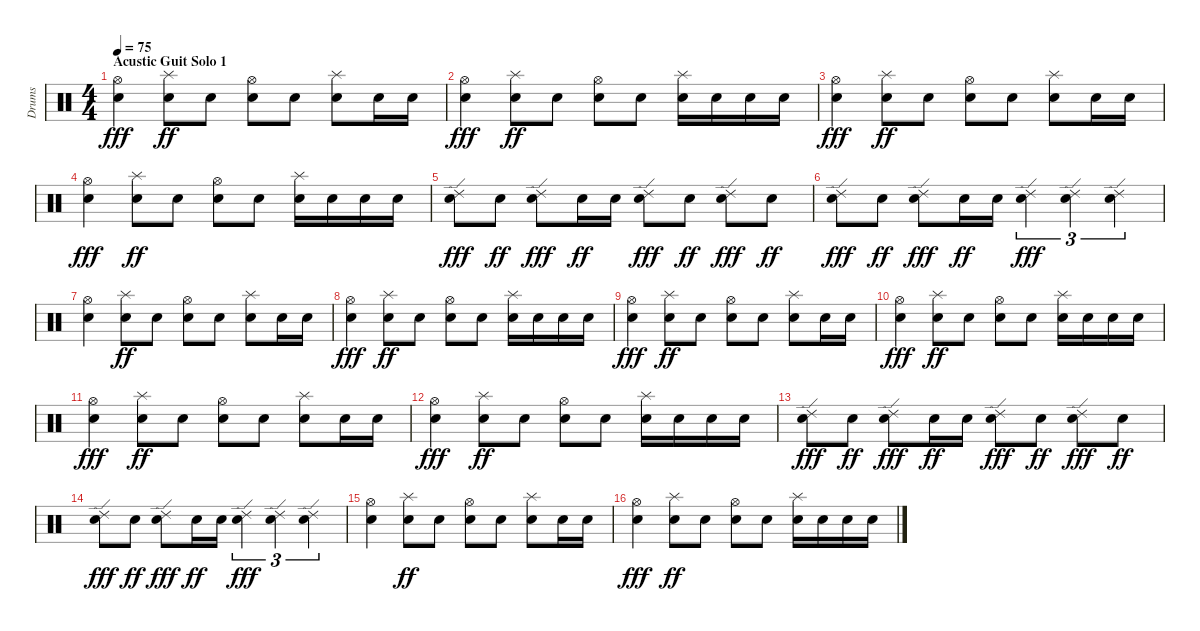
\track ("Drums" "Drums") {instrument percussion}
\staff {score}
\articulation defaults
\ts (4 4)
\section ("" "Acustic Guit Solo 1")
\tempo 75
\clef neutral
\ks c
("Electric Snare (hit)" "Hi-Hat (open)").4{dy fff} ("Splash (hit)" "Snare (hit) 2").8{dy ff} "Snare (hit) 2".8 ("Hi-Hat (open)" "Snare (hit) 2").8 "Electric Snare (hit)".8 ("Splash (hit)" "Snare (hit) 2").8 "Snare (hit) 2".16 "Snare (hit) 2".16 |
("Electric Snare (hit)" "Hi-Hat (open)").4{dy fff} ("Splash (hit)" "Snare (hit) 2").8{dy ff} "Snare (hit) 2".8 ("Hi-Hat (open)" "Snare (hit) 2").8 "Electric Snare (hit)".8 ("Splash (hit)" "Snare (hit) 2").16 "Snare (hit) 2".16 "Snare (hit) 2".16 "Snare (hit) 2".16 |
("Electric Snare (hit)" "Hi-Hat (open)").4{dy fff} ("Splash (hit)" "Snare (hit) 2").8{dy ff} "Snare (hit) 2".8 ("Hi-Hat (open)" "Snare (hit) 2").8 "Electric Snare (hit)".8 ("Splash (hit)" "Snare (hit) 2").8 "Snare (hit) 2".16 "Snare (hit) 2".16 |
("Electric Snare (hit)" "Hi-Hat (open)").4{dy fff} ("Splash (hit)" "Snare (hit) 2").8{dy ff} "Snare (hit) 2".8 ("Hi-Hat (open)" "Snare (hit) 2").8 "Electric Snare (hit)".8 ("Splash (hit)" "Snare (hit) 2").16 "Snare (hit) 2".16 "Snare (hit) 2".16 "Snare (hit) 2".16 |
("Electric Snare (hit)" "Ride (edge) 2").8{dy fff} "Electric Snare (hit)".8{dy ff} ("Electric Snare (hit)" "Ride (edge) 2").8{dy fff} "Electric Snare (hit)".16{dy ff} "Electric Snare (hit)".16 ("Electric Snare (hit)" "Ride (edge) 2").8{dy fff} "Electric Snare (hit)".8{dy ff} ("Electric Snare (hit)" "Ride (edge) 2").8{dy fff} "Electric Snare (hit)".8{dy ff} |
("Electric Snare (hit)" "Ride (edge) 2").8{dy fff} "Electric Snare (hit)".8{dy ff} ("Electric Snare (hit)" "Ride (edge) 2").8{dy fff} "Electric Snare (hit)".16{dy ff} "Electric Snare (hit)".16 ("Electric Snare (hit)" "Ride (edge) 2").4{tu (3 2) dy fff} ("Electric Snare (hit)" "Ride (edge) 2").4{tu (3 2)} ("Electric Snare (hit)" "Ride (edge) 2").4{tu (3 2)} |
("Electric Snare (hit)" "Hi-Hat (open)").4 ("Splash (hit)" "Snare (hit) 2").8{dy ff} "Snare (hit) 2".8 ("Hi-Hat (open)" "Snare (hit) 2").8 "Electric Snare (hit)".8 ("Splash (hit)" "Snare (hit) 2").8 "Snare (hit) 2".16 "Snare (hit) 2".16 |
("Electric Snare (hit)" "Hi-Hat (open)").4{dy fff} ("Splash (hit)" "Snare (hit) 2").8{dy ff} "Snare (hit) 2".8 ("Hi-Hat (open)" "Snare (hit) 2").8 "Electric Snare (hit)".8 ("Splash (hit)" "Snare (hit) 2").16 "Snare (hit) 2".16 "Snare (hit) 2".16 "Snare (hit) 2".16 |
("Electric Snare (hit)" "Hi-Hat (open)").4{dy fff} ("Splash (hit)" "Snare (hit) 2").8{dy ff} "Snare (hit) 2".8 ("Hi-Hat (open)" "Snare (hit) 2").8 "Electric Snare (hit)".8 ("Splash (hit)" "Snare (hit) 2").8 "Snare (hit) 2".16 "Snare (hit) 2".16 |
("Electric Snare (hit)" "Hi-Hat (open)").4{dy fff} ("Splash (hit)" "Snare (hit) 2").8{dy ff} "Snare (hit) 2".8 ("Hi-Hat (open)" "Snare (hit) 2").8 "Electric Snare (hit)".8 ("Splash (hit)" "Snare (hit) 2").16 "Snare (hit) 2".16 "Snare (hit) 2".16 "Snare (hit) 2".16 |
("Electric Snare (hit)" "Hi-Hat (open)").4{dy fff} ("Splash (hit)" "Snare (hit) 2").8{dy ff} "Snare (hit) 2".8 ("Hi-Hat (open)" "Snare (hit) 2").8 "Electric Snare (hit)".8 ("Splash (hit)" "Snare (hit) 2").8 "Snare (hit) 2".16 "Snare (hit) 2".16 |
("Electric Snare (hit)" "Hi-Hat (open)").4{dy fff} ("Splash (hit)" "Snare (hit) 2").8{dy ff} "Snare (hit) 2".8 ("Hi-Hat (open)" "Snare (hit) 2").8 "Electric Snare (hit)".8 ("Splash (hit)" "Snare (hit) 2").16 "Snare (hit) 2".16 "Snare (hit) 2".16 "Snare (hit) 2".16 |
("Electric Snare (hit)" "Ride (edge) 2").8{dy fff} "Electric Snare (hit)".8{dy ff} ("Electric Snare (hit)" "Ride (edge) 2").8{dy fff} "Electric Snare (hit)".16{dy ff} "Electric Snare (hit)".16 ("Electric Snare (hit)" "Ride (edge) 2").8{dy fff} "Electric Snare (hit)".8{dy ff} ("Electric Snare (hit)" "Ride (edge) 2").8{dy fff} "Electric Snare (hit)".8{dy ff} |
("Electric Snare (hit)" "Ride (edge) 2").8{dy fff} "Electric Snare (hit)".8{dy ff} ("Electric Snare (hit)" "Ride (edge) 2").8{dy fff} "Electric Snare (hit)".16{dy ff} "Electric Snare (hit)".16 ("Electric Snare (hit)" "Ride (edge) 2").4{tu (3 2) dy fff} ("Electric Snare (hit)" "Ride (edge) 2").4{tu (3 2)} ("Electric Snare (hit)" "Ride (edge) 2").4{tu (3 2)} |
("Electric Snare (hit)" "Hi-Hat (open)").4 ("Splash (hit)" "Snare (hit) 2").8{dy ff} "Snare (hit) 2".8 ("Hi-Hat (open)" "Snare (hit) 2").8 "Electric Snare (hit)".8 ("Splash (hit)" "Snare (hit) 2").8 "Snare (hit) 2".16 "Snare (hit) 2".16 |
("Electric Snare (hit)" "Hi-Hat (open)").4{dy fff} ("Splash (hit)" "Snare (hit) 2").8{dy ff} "Snare (hit) 2".8 ("Hi-Hat (open)" "Snare (hit) 2").8 "Electric Snare (hit)".8 ("Splash (hit)" "Snare (hit) 2").16 "Snare (hit) 2".16 "Snare (hit) 2".16 "Snare (hit) 2".16
